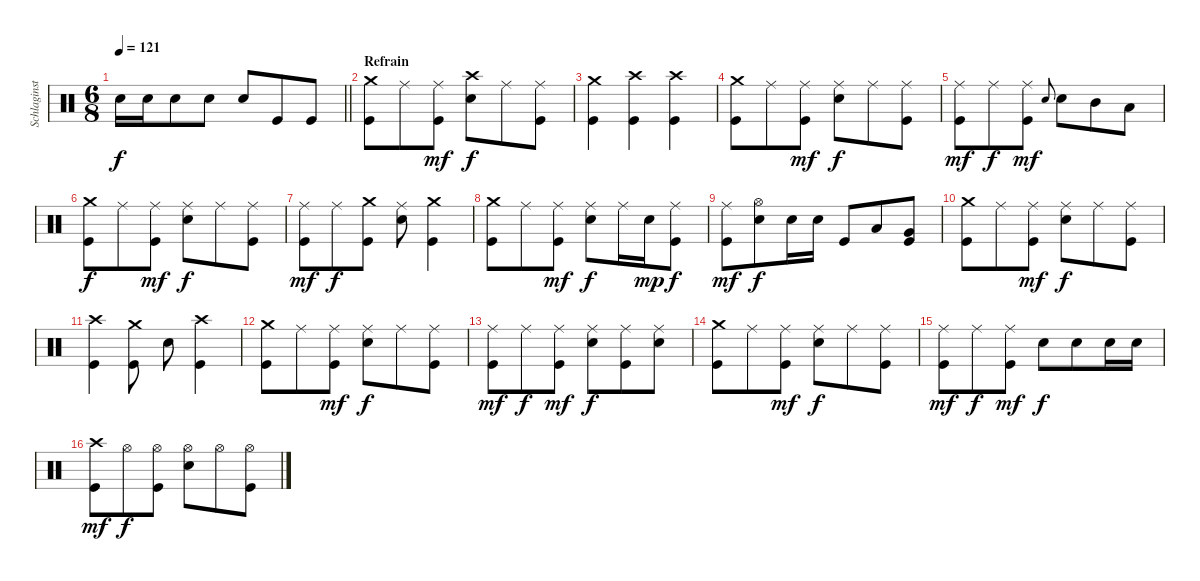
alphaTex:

\track ("Schlaginstrumente - Auswahl" "Schlaginst") {instrument percussion}
\staff {score}
\articulation defaults
\ts (6 8)
\tempo 121
\clef neutral
\barLineRight lightlight
\ks c "Snare (hit) 2".16{dy f} "Snare (hit) 2".16 "Snare (hit) 2".8 "Snare (hit) 2".8 "Snare (hit) 2".8 "Kick (hit)".8 "Kick (hit)".8
|
\section ("" "Refrain")
("Crash medium (hit)" "Kick (hit)").8 "Ride (middle)".8 ("Ride (middle)" "Kick (hit)").8{dy mf} ("Crash high (hit)" "Snare (hit) 2").8{dy f} "Ride (middle)".8 ("Ride (middle)" "Kick (hit)").8 |
("Crash medium (hit)" "Kick (hit)").4 ("Crash high (hit)" "Kick (hit)").4 ("Crash high (hit)" "Kick (hit)").4 |
("Crash medium (hit)" "Kick (hit)").8 "Ride (middle)".8 ("Ride (middle)" "Kick (hit)").8{dy mf} ("Ride (middle)" "Snare (hit) 2").8{dy f} "Ride (middle)".8 ("Ride (middle)" "Kick (hit)").8 |
("Ride (middle)" "Kick (hit)").8{dy mf} "Ride (middle)".8{dy f} ("Ride (middle)" "Kick (hit)").8{dy mf} "Snare (hit) 2".8{gr onbeat} "Snare (hit) 2".8 "Mid Tom (hit)".8 "Low Tom (hit)".8 |
("Crash medium (hit)" "Kick (hit)").8{dy f} "Ride (middle)".8 ("Ride (middle)" "Kick (hit)").8{dy mf} ("Ride (middle)" "Snare (hit) 2").8{dy f} "Ride (middle)".8 ("Ride (middle)" "Kick (hit)").8 |
("Ride (middle)" "Kick (hit)").8{dy mf} "Ride (middle)".8{dy f} ("Crash medium (hit)" "Kick (hit)").8 ("Ride (middle)" "Snare (hit) 2").8 ("Crash medium (hit)" "Kick (hit)").4 |
("Crash medium (hit)" "Kick (hit)").8 "Ride (middle)".8 ("Ride (middle)" "Kick (hit)").8{dy mf} ("Ride (middle)" "Snare (hit) 2").8{dy f} "Ride (middle)".16 "Snare (hit) 2".16{dy mp} ("Ride (middle)" "Kick (hit)").8{dy f} |
("Ride (middle)" "Kick (hit)").8{dy mf} ("Hi-Hat (open)" "Snare (hit) 2").8{dy f} "Snare (hit) 2".16 "Snare (hit) 2".16 "Kick (hit)".8 "Low Tom (hit)".8 ("Kick (hit)" "Very Low Tom (hit)").8 |
("Crash medium (hit)" "Kick (hit)").8 "Ride (middle)".8 ("Ride (middle)" "Kick (hit)").8{dy mf} ("Ride (middle)" "Snare (hit) 2").8{dy f} "Ride (middle)".8 ("Ride (middle)" "Kick (hit)").8 |
("Kick (hit)" "Crash high (hit)").4 ("Crash medium (hit)" "Kick (hit)").8 "Snare (hit) 2".8 ("Crash high (hit)" "Kick (hit)").4 |
("Crash medium (hit)" "Kick (hit)").8 "Ride (middle)".8 ("Ride (middle)" "Kick (hit)").8{dy mf} ("Ride (middle)" "Snare (hit) 2").8{dy f} "Ride (middle)".8 ("Ride (middle)" "Kick (hit)").8 |
("Ride (middle)" "Kick (hit)").8{dy mf} "Ride (middle)".8{dy f} ("Ride (middle)" "Kick (hit)").8{dy mf} ("Ride (middle)" "Snare (hit) 2").8{dy f} ("Ride (middle)" "Kick (hit)").8 ("Ride (middle)" "Snare (hit) 2").8 |
("Crash medium (hit)" "Kick (hit)").8 "Ride (middle)".8 ("Ride (middle)" "Kick (hit)").8{dy mf} ("Ride (middle)" "Snare (hit) 2").8{dy f} "Ride (middle)".8 ("Ride (middle)" "Kick (hit)").8 |
("Ride (middle)" "Kick (hit)").8{dy mf} "Ride (middle)".8{dy f} ("Ride (middle)" "Kick (hit)").8{dy mf} "Snare (hit) 2".8{dy f} "Snare (hit) 2".8 "Snare (hit) 2".16 "Snare (hit) 2".16 |
("Crash high (hit)" "Kick (hit)").8{dy mf} "Hi-Hat (open)".8{dy f} ("Hi-Hat (open)" "Kick (hit)").8 ("Hi-Hat (open)" "Snare (hit) 2").8 "Hi-Hat (open)".8 ("Hi-Hat (open)" "Kick (hit)").8
